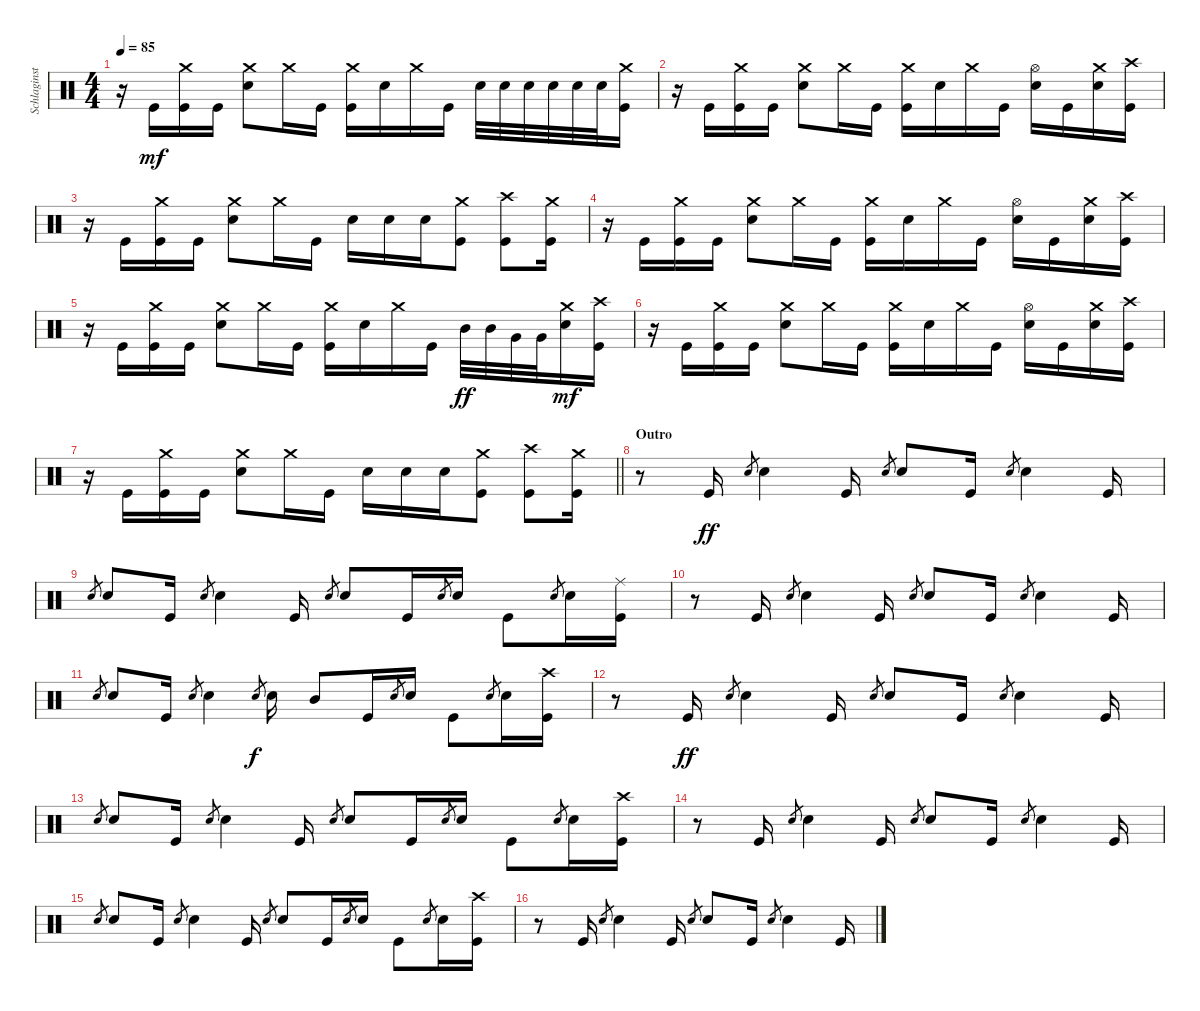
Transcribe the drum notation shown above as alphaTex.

\track ("Schlaginstrumente - Auswahl" "Schlaginst") {instrument percussion}
\staff {score}
\articulation defaults
\ts (4 4)
\tempo 85
\clef neutral
\ks c
r.16{dy mf} "Kick (hit)".16 ("Crash medium (hit)" "Kick (hit)").16 "Kick (hit)".16 ("Crash medium (hit)" "Snare (hit) 2").8 "Crash medium (hit)".16 "Kick (hit)".16 ("Crash medium (hit)" "Kick (hit)").16 "Snare (hit) 2".16 "Crash medium (hit)".16 "Kick (hit)".16 "Snare (hit) 2".32 "Snare (hit) 2".32 "Snare (hit) 2".32 "Snare (hit) 2".32 "Snare (hit) 2".32 "Snare (hit) 2".32 ("Crash medium (hit)" "Kick (hit)").16 |
r.16 "Kick (hit)".16 ("Crash medium (hit)" "Kick (hit)").16 "Kick (hit)".16 ("Crash medium (hit)" "Snare (hit) 2").8 "Crash medium (hit)".16 "Kick (hit)".16 ("Crash medium (hit)" "Kick (hit)").16 "Snare (hit) 2".16 "Crash medium (hit)".16 "Kick (hit)".16 ("Hi-Hat (open)" "Snare (hit) 2").16 "Kick (hit)".16 ("Crash medium (hit)" "Snare (hit) 2").16 ("Crash high (hit)" "Kick (hit)").16 |
r.16 "Kick (hit)".16 ("Crash medium (hit)" "Kick (hit)").16 "Kick (hit)".16 ("Crash medium (hit)" "Snare (hit) 2").8 "Crash medium (hit)".16 "Kick (hit)".16 "Snare (hit) 2".16 "Snare (hit) 2".16 "Snare (hit) 2".16 ("Crash medium (hit)" "Kick (hit)").8 ("Crash high (hit)" "Kick (hit)").8 ("Crash medium (hit)" "Kick (hit)").16 |
r.16 "Kick (hit)".16 ("Crash medium (hit)" "Kick (hit)").16 "Kick (hit)".16 ("Crash medium (hit)" "Snare (hit) 2").8 "Crash medium (hit)".16 "Kick (hit)".16 ("Crash medium (hit)" "Kick (hit)").16 "Snare (hit) 2".16 "Crash medium (hit)".16 "Kick (hit)".16 ("Hi-Hat (open)" "Snare (hit) 2").16 "Kick (hit)".16 ("Crash medium (hit)" "Snare (hit) 2").16 ("Crash high (hit)" "Kick (hit)").16 |
r.16 "Kick (hit)".16 ("Crash medium (hit)" "Kick (hit)").16 "Kick (hit)".16 ("Crash medium (hit)" "Snare (hit) 2").8 "Crash medium (hit)".16 "Kick (hit)".16 ("Crash medium (hit)" "Kick (hit)").16 "Snare (hit) 2".16 "Crash medium (hit)".16 "Kick (hit)".16 "Mid Tom (hit)".32{dy ff} "Mid Tom (hit)".32 "Very Low Tom (hit)".32 "Very Low Tom (hit)".32 ("Crash medium (hit)" "Snare (hit) 2").16{dy mf} ("Crash high (hit)" "Kick (hit)").16 |
r.16 "Kick (hit)".16 ("Crash medium (hit)" "Kick (hit)").16 "Kick (hit)".16 ("Crash medium (hit)" "Snare (hit) 2").8 "Crash medium (hit)".16 "Kick (hit)".16 ("Crash medium (hit)" "Kick (hit)").16 "Snare (hit) 2".16 "Crash medium (hit)".16 "Kick (hit)".16 ("Hi-Hat (open)" "Snare (hit) 2").16 "Kick (hit)".16 ("Crash medium (hit)" "Snare (hit) 2").16 ("Crash high (hit)" "Kick (hit)").16 |
\barLineRight lightlight
r.16 "Kick (hit)".16 ("Crash medium (hit)" "Kick (hit)").16 "Kick (hit)".16 ("Crash medium (hit)" "Snare (hit) 2").8 "Crash medium (hit)".16 "Kick (hit)".16 "Snare (hit) 2".16 "Snare (hit) 2".16 "Snare (hit) 2".16 ("Crash medium (hit)" "Kick (hit)").8 ("Crash high (hit)" "Kick (hit)").8 ("Crash medium (hit)" "Kick (hit)").16 |
\section ("" "Outro")
r.8 "Kick (hit)".16{dy ff} "Snare (hit) 2".8{gr} "Snare (hit) 2".4 "Kick (hit)".16 "Snare (hit) 2".8{gr} "Snare (hit) 2".8 "Kick (hit)".16 "Snare (hit) 2".8{gr} "Snare (hit) 2".4 "Kick (hit)".16 |
"Snare (hit) 2".8{gr} "Snare (hit) 2".8 "Kick (hit)".16 "Snare (hit) 2".8{gr} "Snare (hit) 2".4 "Kick (hit)".16 "Snare (hit) 2".8{gr} "Snare (hit) 2".8 "Kick (hit)".16 "Snare (hit) 2".8{gr} "Snare (hit) 2".16 "Kick (hit)".8 "Snare (hit) 2".8{gr} "Snare (hit) 2".16 ("Ride (middle)" "Kick (hit)").16 |
r.8 "Kick (hit)".16 "Snare (hit) 2".8{gr} "Snare (hit) 2".4 "Kick (hit)".16 "Snare (hit) 2".8{gr} "Snare (hit) 2".8 "Kick (hit)".16 "Snare (hit) 2".8{gr} "Snare (hit) 2".4 "Kick (hit)".16 |
"Snare (hit) 2".8{gr} "Snare (hit) 2".8 "Kick (hit)".16 "Snare (hit) 2".8{gr} "Snare (hit) 2".4 "Snare (hit) 2".8{gr dy f} "Snare (hit) 2".16 "Mid Tom (hit)".8 "Kick (hit)".16 "Snare (hit) 2".8{gr} "Snare (hit) 2".16 "Kick (hit)".8 "Snare (hit) 2".8{gr} "Snare (hit) 2".16 ("Crash high (hit)" "Kick (hit)").16 |
r.8 "Kick (hit)".16{dy ff} "Snare (hit) 2".8{gr} "Snare (hit) 2".4 "Kick (hit)".16 "Snare (hit) 2".8{gr} "Snare (hit) 2".8 "Kick (hit)".16 "Snare (hit) 2".8{gr} "Snare (hit) 2".4 "Kick (hit)".16 |
"Snare (hit) 2".8{gr} "Snare (hit) 2".8 "Kick (hit)".16 "Snare (hit) 2".8{gr} "Snare (hit) 2".4 "Kick (hit)".16 "Snare (hit) 2".8{gr} "Snare (hit) 2".8 "Kick (hit)".16 "Snare (hit) 2".8{gr} "Snare (hit) 2".16 "Kick (hit)".8 "Snare (hit) 2".8{gr} "Snare (hit) 2".16 ("Crash high (hit)" "Kick (hit)").16 |
r.8 "Kick (hit)".16 "Snare (hit) 2".8{gr} "Snare (hit) 2".4 "Kick (hit)".16 "Snare (hit) 2".8{gr} "Snare (hit) 2".8 "Kick (hit)".16 "Snare (hit) 2".8{gr} "Snare (hit) 2".4 "Kick (hit)".16 |
"Snare (hit) 2".8{gr} "Snare (hit) 2".8 "Kick (hit)".16 "Snare (hit) 2".8{gr} "Snare (hit) 2".4 "Kick (hit)".16 "Snare (hit) 2".8{gr} "Snare (hit) 2".8 "Kick (hit)".16 "Snare (hit) 2".8{gr} "Snare (hit) 2".16 "Kick (hit)".8 "Snare (hit) 2".8{gr} "Snare (hit) 2".16 ("Crash high (hit)" "Kick (hit)").16 |
r.8 "Kick (hit)".16 "Snare (hit) 2".8{gr} "Snare (hit) 2".4 "Kick (hit)".16 "Snare (hit) 2".8{gr} "Snare (hit) 2".8 "Kick (hit)".16 "Snare (hit) 2".8{gr} "Snare (hit) 2".4 "Kick (hit)".16
